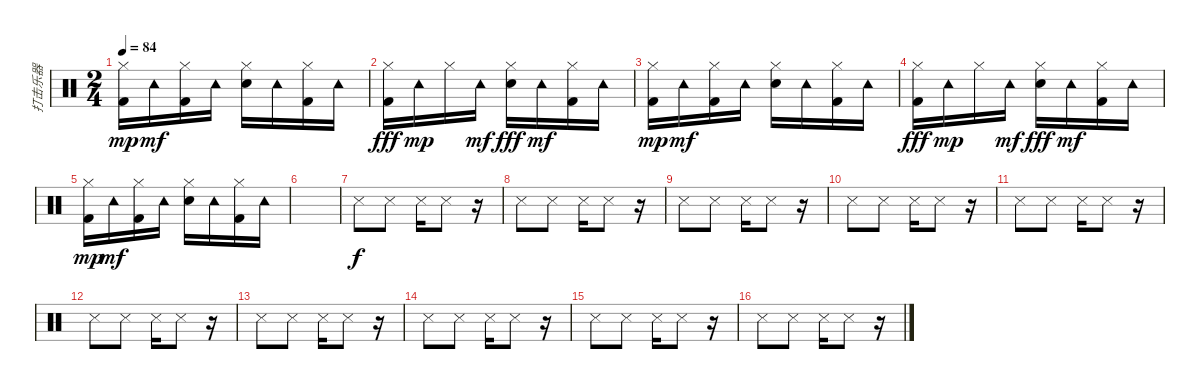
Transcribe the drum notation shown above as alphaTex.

\track ("打击乐器" "打击乐器") {instrument percussion}
\staff {score}
\articulation defaults
\ts (2 4)
\tempo 84
\clef neutral
\ks c
("Hi-Hat (closed)" "Kick (hit) 2").16{dy mp} "Tambourine (hit)".16{dy mf} ("Hi-Hat (closed)" "Kick (hit) 2").16 "Tambourine (hit)".16 ("Hi-Hat (closed)" "Snare (hit) 2").16 "Tambourine (hit)".16 ("Hi-Hat (closed)" "Kick (hit) 2").16 "Tambourine (hit)".16 |
("Hi-Hat (closed)" "Kick (hit) 2").16{dy fff} "Tambourine (hit)".16{dy mp} "Hi-Hat (closed)".16 "Tambourine (hit)".16{dy mf} ("Hi-Hat (closed)" "Snare (hit) 2").16{dy fff} "Tambourine (hit)".16{dy mf} ("Hi-Hat (closed)" "Kick (hit) 2").16 "Tambourine (hit)".16 |
("Hi-Hat (closed)" "Kick (hit) 2").16{dy mp} "Tambourine (hit)".16{dy mf} ("Hi-Hat (closed)" "Kick (hit) 2").16 "Tambourine (hit)".16 ("Hi-Hat (closed)" "Snare (hit) 2").16 "Tambourine (hit)".16 ("Hi-Hat (closed)" "Kick (hit) 2").16 "Tambourine (hit)".16 |
("Hi-Hat (closed)" "Kick (hit) 2").16{dy fff} "Tambourine (hit)".16{dy mp} "Hi-Hat (closed)".16 "Tambourine (hit)".16{dy mf} ("Hi-Hat (closed)" "Snare (hit) 2").16{dy fff} "Tambourine (hit)".16{dy mf} ("Hi-Hat (closed)" "Kick (hit) 2").16 "Tambourine (hit)".16 |
("Hi-Hat (closed)" "Kick (hit) 2").16{dy mp} "Tambourine (hit)".16{dy mf} ("Hi-Hat (closed)" "Kick (hit) 2").16 "Tambourine (hit)".16 ("Hi-Hat (closed)" "Snare (hit) 2").16 "Tambourine (hit)".16 ("Hi-Hat (closed)" "Kick (hit) 2").16 "Tambourine (hit)".16 |
|
"Snare (side stick) 3".8{dy f} "Snare (side stick) 3".8 "Snare (side stick) 3".16 "Snare (side stick) 3".8 r.16 |
"Snare (side stick) 3".8 "Snare (side stick) 3".8 "Snare (side stick) 3".16 "Snare (side stick) 3".8 r.16 |
"Snare (side stick) 3".8 "Snare (side stick) 3".8 "Snare (side stick) 3".16 "Snare (side stick) 3".8 r.16 |
"Snare (side stick) 3".8 "Snare (side stick) 3".8 "Snare (side stick) 3".16 "Snare (side stick) 3".8 r.16 |
"Snare (side stick) 3".8 "Snare (side stick) 3".8 "Snare (side stick) 3".16 "Snare (side stick) 3".8 r.16 |
"Snare (side stick) 3".8 "Snare (side stick) 3".8 "Snare (side stick) 3".16 "Snare (side stick) 3".8 r.16 |
"Snare (side stick) 3".8 "Snare (side stick) 3".8 "Snare (side stick) 3".16 "Snare (side stick) 3".8 r.16 |
"Snare (side stick) 3".8 "Snare (side stick) 3".8 "Snare (side stick) 3".16 "Snare (side stick) 3".8 r.16 |
"Snare (side stick) 3".8 "Snare (side stick) 3".8 "Snare (side stick) 3".16 "Snare (side stick) 3".8 r.16 |
"Snare (side stick) 3".8 "Snare (side stick) 3".8 "Snare (side stick) 3".16 "Snare (side stick) 3".8 r.16
